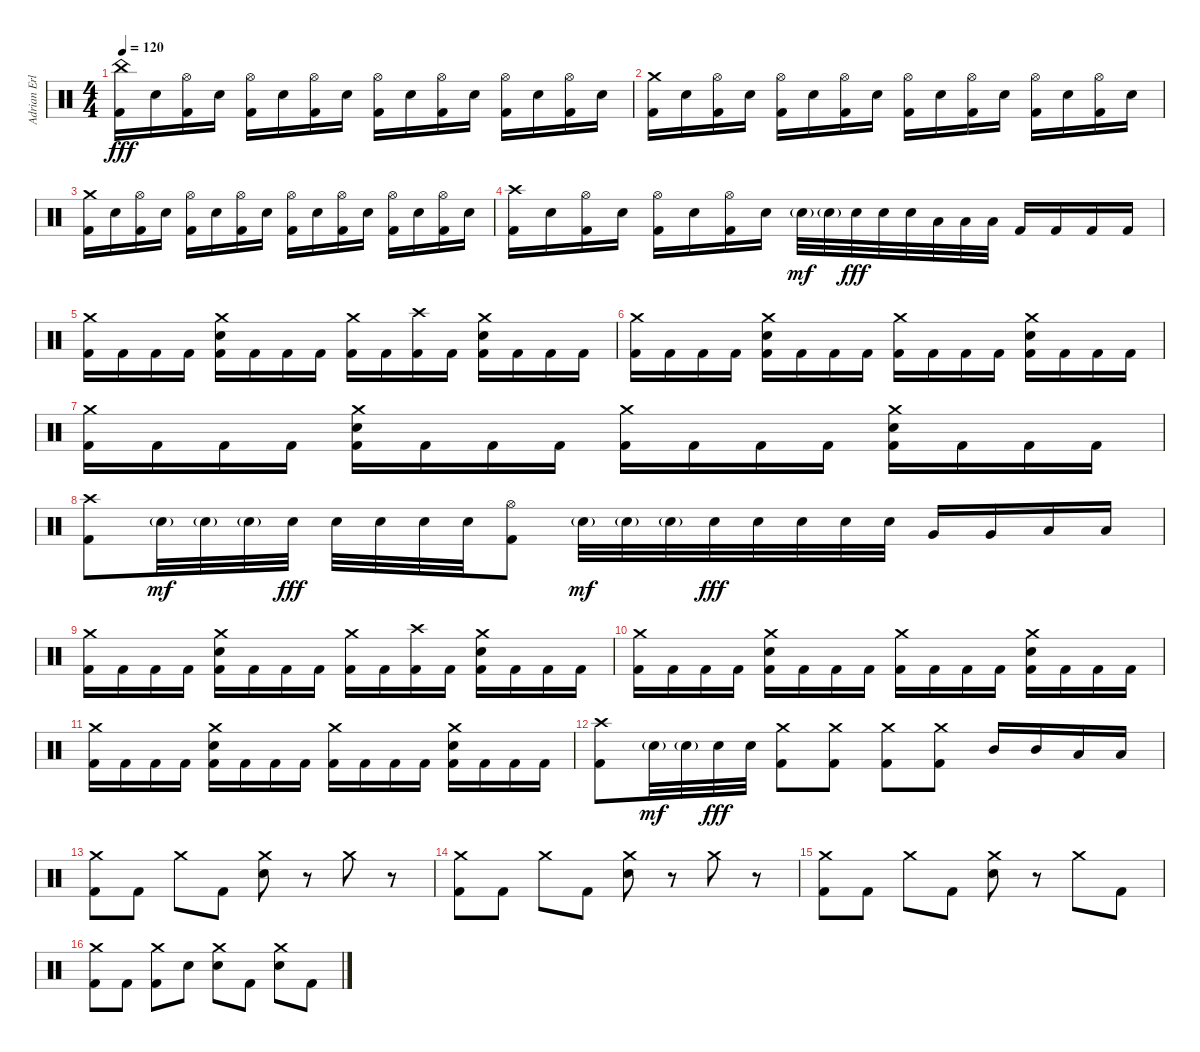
\track ("Adrian Erlandsson" "Adrian Erl") {instrument percussion}
\staff {score}
\articulation defaults
\ts (4 4)
\tempo 120
\clef neutral
\ks c
("China (hit)" "Kick (hit) 2").16{dy fff} "Electric Snare (hit)".16 ("Hi-Hat (open)" "Kick (hit) 2").16 "Electric Snare (hit)".16 ("Hi-Hat (open)" "Kick (hit) 2").16 "Electric Snare (hit)".16 ("Hi-Hat (open)" "Kick (hit) 2").16 "Electric Snare (hit)".16 ("Hi-Hat (open)" "Kick (hit) 2").16 "Electric Snare (hit)".16 ("Hi-Hat (open)" "Kick (hit) 2").16 "Electric Snare (hit)".16 ("Hi-Hat (open)" "Kick (hit) 2").16 "Electric Snare (hit)".16 ("Hi-Hat (open)" "Kick (hit) 2").16 "Electric Snare (hit)".16 |
("Crash medium (hit)" "Kick (hit) 2").16 "Electric Snare (hit)".16 ("Hi-Hat (open)" "Kick (hit) 2").16 "Electric Snare (hit)".16 ("Hi-Hat (open)" "Kick (hit) 2").16 "Electric Snare (hit)".16 ("Hi-Hat (open)" "Kick (hit) 2").16 "Electric Snare (hit)".16 ("Hi-Hat (open)" "Kick (hit) 2").16 "Electric Snare (hit)".16 ("Hi-Hat (open)" "Kick (hit) 2").16 "Electric Snare (hit)".16 ("Hi-Hat (open)" "Kick (hit) 2").16 "Electric Snare (hit)".16 ("Hi-Hat (open)" "Kick (hit) 2").16 "Electric Snare (hit)".16 |
("Crash medium (hit)" "Kick (hit) 2").16 "Electric Snare (hit)".16 ("Hi-Hat (open)" "Kick (hit) 2").16 "Electric Snare (hit)".16 ("Hi-Hat (open)" "Kick (hit) 2").16 "Electric Snare (hit)".16 ("Hi-Hat (open)" "Kick (hit) 2").16 "Electric Snare (hit)".16 ("Hi-Hat (open)" "Kick (hit) 2").16 "Electric Snare (hit)".16 ("Hi-Hat (open)" "Kick (hit) 2").16 "Electric Snare (hit)".16 ("Hi-Hat (open)" "Kick (hit) 2").16 "Electric Snare (hit)".16 ("Hi-Hat (open)" "Kick (hit) 2").16 "Electric Snare (hit)".16 |
("Crash high (hit)" "Kick (hit) 2").16 "Electric Snare (hit)".16 ("Hi-Hat (open)" "Kick (hit) 2").16 "Electric Snare (hit)".16 ("Hi-Hat (open)" "Kick (hit) 2").16 "Electric Snare (hit)".16 ("Hi-Hat (open)" "Kick (hit) 2").16 "Electric Snare (hit)".16 "Electric Snare (hit)"{g}.32{dy mf} "Electric Snare (hit)"{g}.32 "Electric Snare (hit)".32{dy fff} "Electric Snare (hit)".32 "Electric Snare (hit)".32 "Low Tom (hit)".32 "Low Tom (hit)".32 "Low Tom (hit)".32 "Kick (hit) 2".16 "Kick (hit) 2".16 "Kick (hit) 2".16 "Kick (hit) 2".16 |
("Crash medium (hit)" "Kick (hit) 2").16 "Kick (hit) 2".16 "Kick (hit) 2".16 "Kick (hit) 2".16 ("Crash medium (hit)" "Electric Snare (hit)" "Kick (hit) 2").16 "Kick (hit) 2".16 "Kick (hit) 2".16 "Kick (hit) 2".16 ("Crash medium (hit)" "Kick (hit) 2").16 "Kick (hit) 2".16 ("Crash high (hit)" "Kick (hit) 2").16 "Kick (hit) 2".16 ("Crash medium (hit)" "Electric Snare (hit)" "Kick (hit) 2").16 "Kick (hit) 2".16 "Kick (hit) 2".16 "Kick (hit) 2".16 |
("Crash medium (hit)" "Kick (hit) 2").16 "Kick (hit) 2".16 "Kick (hit) 2".16 "Kick (hit) 2".16 ("Crash medium (hit)" "Electric Snare (hit)" "Kick (hit) 2").16 "Kick (hit) 2".16 "Kick (hit) 2".16 "Kick (hit) 2".16 ("Crash medium (hit)" "Kick (hit) 2").16 "Kick (hit) 2".16 "Kick (hit) 2".16 "Kick (hit) 2".16 ("Crash medium (hit)" "Electric Snare (hit)" "Kick (hit) 2").16 "Kick (hit) 2".16 "Kick (hit) 2".16 "Kick (hit) 2".16 |
("Crash medium (hit)" "Kick (hit) 2").16 "Kick (hit) 2".16 "Kick (hit) 2".16 "Kick (hit) 2".16 ("Crash medium (hit)" "Electric Snare (hit)" "Kick (hit) 2").16 "Kick (hit) 2".16 "Kick (hit) 2".16 "Kick (hit) 2".16 ("Crash medium (hit)" "Kick (hit) 2").16 "Kick (hit) 2".16 "Kick (hit) 2".16 "Kick (hit) 2".16 ("Crash medium (hit)" "Electric Snare (hit)" "Kick (hit) 2").16 "Kick (hit) 2".16 "Kick (hit) 2".16 "Kick (hit) 2".16 |
("Crash high (hit)" "Kick (hit) 2").8 "Electric Snare (hit)"{g}.32{dy mf} "Electric Snare (hit)"{g}.32 "Electric Snare (hit)"{g}.32 "Electric Snare (hit)".32{dy fff} "Electric Snare (hit)".32 "Electric Snare (hit)".32 "Electric Snare (hit)".32 "Electric Snare (hit)".32 ("Hi-Hat (open)" "Kick (hit) 2").8 "Electric Snare (hit)"{g}.32{dy mf} "Electric Snare (hit)"{g}.32 "Electric Snare (hit)"{g}.32 "Electric Snare (hit)".32{dy fff} "Electric Snare (hit)".32 "Electric Snare (hit)".32 "Electric Snare (hit)".32 "Electric Snare (hit)".32 "Very Low Tom (hit)".16 "Very Low Tom (hit)".16 "Low Tom (hit)".16 "Low Tom (hit)".16 |
("Crash medium (hit)" "Kick (hit) 2").16 "Kick (hit) 2".16 "Kick (hit) 2".16 "Kick (hit) 2".16 ("Crash medium (hit)" "Electric Snare (hit)" "Kick (hit) 2").16 "Kick (hit) 2".16 "Kick (hit) 2".16 "Kick (hit) 2".16 ("Crash medium (hit)" "Kick (hit) 2").16 "Kick (hit) 2".16 ("Crash high (hit)" "Kick (hit) 2").16 "Kick (hit) 2".16 ("Crash medium (hit)" "Electric Snare (hit)" "Kick (hit) 2").16 "Kick (hit) 2".16 "Kick (hit) 2".16 "Kick (hit) 2".16 |
("Crash medium (hit)" "Kick (hit) 2").16 "Kick (hit) 2".16 "Kick (hit) 2".16 "Kick (hit) 2".16 ("Crash medium (hit)" "Electric Snare (hit)" "Kick (hit) 2").16 "Kick (hit) 2".16 "Kick (hit) 2".16 "Kick (hit) 2".16 ("Crash medium (hit)" "Kick (hit) 2").16 "Kick (hit) 2".16 "Kick (hit) 2".16 "Kick (hit) 2".16 ("Crash medium (hit)" "Electric Snare (hit)" "Kick (hit) 2").16 "Kick (hit) 2".16 "Kick (hit) 2".16 "Kick (hit) 2".16 |
("Crash medium (hit)" "Kick (hit) 2").16 "Kick (hit) 2".16 "Kick (hit) 2".16 "Kick (hit) 2".16 ("Crash medium (hit)" "Electric Snare (hit)" "Kick (hit) 2").16 "Kick (hit) 2".16 "Kick (hit) 2".16 "Kick (hit) 2".16 ("Crash medium (hit)" "Kick (hit) 2").16 "Kick (hit) 2".16 "Kick (hit) 2".16 "Kick (hit) 2".16 ("Crash medium (hit)" "Electric Snare (hit)" "Kick (hit) 2").16 "Kick (hit) 2".16 "Kick (hit) 2".16 "Kick (hit) 2".16 |
("Crash high (hit)" "Kick (hit) 2").8 "Electric Snare (hit)"{g}.32{dy mf} "Electric Snare (hit)"{g}.32 "Electric Snare (hit)".32{dy fff} "Electric Snare (hit)".32 ("Crash medium (hit)" "Kick (hit) 2").8 ("Crash medium (hit)" "Kick (hit) 2").8 ("Crash medium (hit)" "Kick (hit) 2").8 ("Crash medium (hit)" "Kick (hit) 2").8 "Mid Tom (hit)".16 "Mid Tom (hit)".16 "Low Tom (hit)".16 "Low Tom (hit)".16 |
("Crash medium (hit)" "Kick (hit) 2").8 "Kick (hit) 2".8 "Crash medium (hit)".8 "Kick (hit) 2".8 ("Crash medium (hit)" "Electric Snare (hit)").8 r.8 "Crash medium (hit)".8 r.8 |
("Crash medium (hit)" "Kick (hit) 2").8 "Kick (hit) 2".8 "Crash medium (hit)".8 "Kick (hit) 2".8 ("Crash medium (hit)" "Electric Snare (hit)").8 r.8 "Crash medium (hit)".8 r.8 |
("Crash medium (hit)" "Kick (hit) 2").8 "Kick (hit) 2".8 "Crash medium (hit)".8 "Kick (hit) 2".8 ("Crash medium (hit)" "Electric Snare (hit)").8 r.8 "Crash medium (hit)".8 "Kick (hit) 2".8 |
("Crash medium (hit)" "Kick (hit) 2").8 "Kick (hit) 2".8 ("Crash medium (hit)" "Kick (hit) 2").8 "Electric Snare (hit)".8 ("Crash medium (hit)" "Electric Snare (hit)").8 "Kick (hit) 2".8 ("Crash medium (hit)" "Electric Snare (hit)").8 "Kick (hit) 2".8
